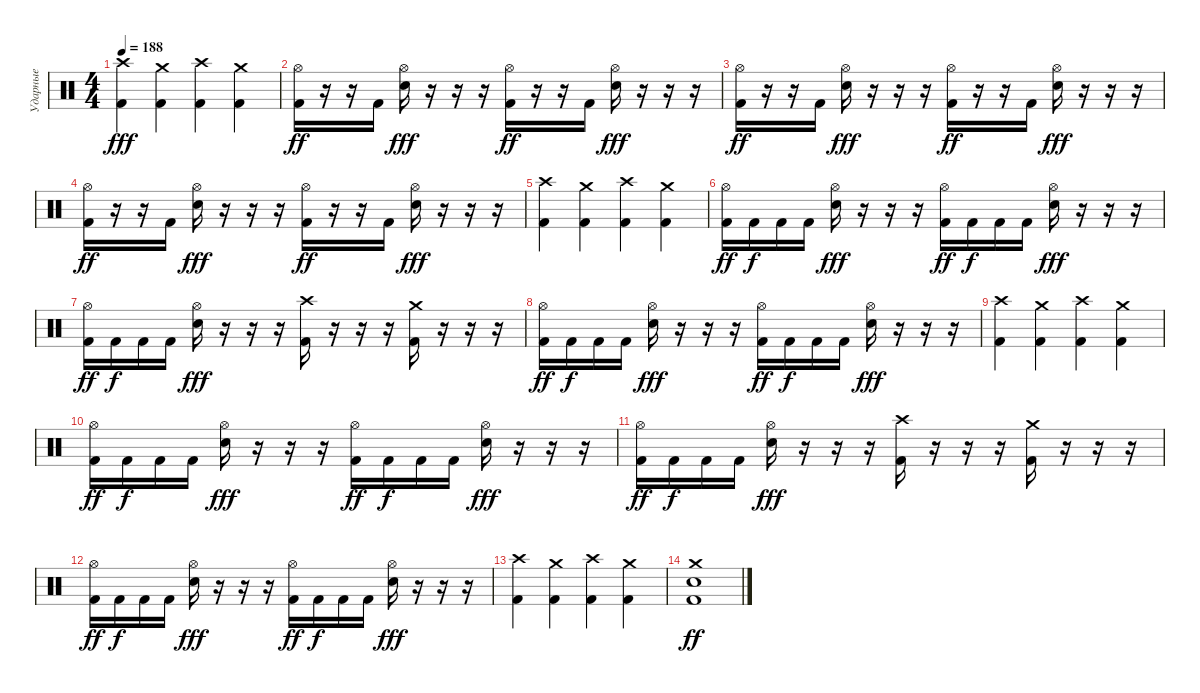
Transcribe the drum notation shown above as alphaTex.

\track ("Ударные" "Ударные") {instrument percussion}
\staff {score}
\articulation defaults
\ts (4 4)
\tempo 188
\clef neutral
\ks c
("Crash high (hit)" "Kick (hit) 2").4{dy fff} ("Crash medium (hit)" "Kick (hit) 2").4 ("Crash high (hit)" "Kick (hit) 2").4 ("Crash medium (hit)" "Kick (hit) 2").4 |
("Hi-Hat (open)" "Kick (hit) 2").16{dy ff} r.16 r.16 "Kick (hit) 2".16 ("Hi-Hat (open)" "Electric Snare (hit)").16{dy fff} r.16 r.16 r.16 ("Hi-Hat (open)" "Kick (hit) 2").16{dy ff} r.16 r.16 "Kick (hit) 2".16 ("Hi-Hat (open)" "Electric Snare (hit)").16{dy fff} r.16 r.16 r.16 |
("Hi-Hat (open)" "Kick (hit) 2").16{dy ff} r.16 r.16 "Kick (hit) 2".16 ("Hi-Hat (open)" "Electric Snare (hit)").16{dy fff} r.16 r.16 r.16 ("Hi-Hat (open)" "Kick (hit) 2").16{dy ff} r.16 r.16 "Kick (hit) 2".16 ("Hi-Hat (open)" "Electric Snare (hit)").16{dy fff} r.16 r.16 r.16 |
("Hi-Hat (open)" "Kick (hit) 2").16{dy ff} r.16 r.16 "Kick (hit) 2".16 ("Hi-Hat (open)" "Electric Snare (hit)").16{dy fff} r.16 r.16 r.16 ("Hi-Hat (open)" "Kick (hit) 2").16{dy ff} r.16 r.16 "Kick (hit) 2".16 ("Hi-Hat (open)" "Electric Snare (hit)").16{dy fff} r.16 r.16 r.16 |
("Crash high (hit)" "Kick (hit) 2").4 ("Crash medium (hit)" "Kick (hit) 2").4 ("Crash high (hit)" "Kick (hit) 2").4 ("Crash medium (hit)" "Kick (hit) 2").4 |
("Hi-Hat (open)" "Kick (hit) 2").16{dy ff} "Kick (hit) 2".16{dy f} "Kick (hit) 2".16 "Kick (hit) 2".16 ("Hi-Hat (open)" "Electric Snare (hit)").16{dy fff} r.16 r.16 r.16 ("Hi-Hat (open)" "Kick (hit) 2").16{dy ff} "Kick (hit) 2".16{dy f} "Kick (hit) 2".16 "Kick (hit) 2".16 ("Hi-Hat (open)" "Electric Snare (hit)").16{dy fff} r.16 r.16 r.16 |
("Hi-Hat (open)" "Kick (hit) 2").16{dy ff} "Kick (hit) 2".16{dy f} "Kick (hit) 2".16 "Kick (hit) 2".16 ("Hi-Hat (open)" "Electric Snare (hit)").16{dy fff} r.16 r.16 r.16 ("Crash high (hit)" "Kick (hit) 2").16 r.16 r.16 r.16 ("Crash medium (hit)" "Kick (hit) 2").16 r.16 r.16 r.16 |
("Hi-Hat (open)" "Kick (hit) 2").16{dy ff} "Kick (hit) 2".16{dy f} "Kick (hit) 2".16 "Kick (hit) 2".16 ("Hi-Hat (open)" "Electric Snare (hit)").16{dy fff} r.16 r.16 r.16 ("Hi-Hat (open)" "Kick (hit) 2").16{dy ff} "Kick (hit) 2".16{dy f} "Kick (hit) 2".16 "Kick (hit) 2".16 ("Hi-Hat (open)" "Electric Snare (hit)").16{dy fff} r.16 r.16 r.16 |
("Crash high (hit)" "Kick (hit) 2").4 ("Crash medium (hit)" "Kick (hit) 2").4 ("Crash high (hit)" "Kick (hit) 2").4 ("Crash medium (hit)" "Kick (hit) 2").4 |
("Hi-Hat (open)" "Kick (hit) 2").16{dy ff} "Kick (hit) 2".16{dy f} "Kick (hit) 2".16 "Kick (hit) 2".16 ("Hi-Hat (open)" "Electric Snare (hit)").16{dy fff} r.16 r.16 r.16 ("Hi-Hat (open)" "Kick (hit) 2").16{dy ff} "Kick (hit) 2".16{dy f} "Kick (hit) 2".16 "Kick (hit) 2".16 ("Hi-Hat (open)" "Electric Snare (hit)").16{dy fff} r.16 r.16 r.16 |
("Hi-Hat (open)" "Kick (hit) 2").16{dy ff} "Kick (hit) 2".16{dy f} "Kick (hit) 2".16 "Kick (hit) 2".16 ("Hi-Hat (open)" "Electric Snare (hit)").16{dy fff} r.16 r.16 r.16 ("Crash high (hit)" "Kick (hit) 2").16 r.16 r.16 r.16 ("Crash medium (hit)" "Kick (hit) 2").16 r.16 r.16 r.16 |
("Hi-Hat (open)" "Kick (hit) 2").16{dy ff} "Kick (hit) 2".16{dy f} "Kick (hit) 2".16 "Kick (hit) 2".16 ("Hi-Hat (open)" "Electric Snare (hit)").16{dy fff} r.16 r.16 r.16 ("Hi-Hat (open)" "Kick (hit) 2").16{dy ff} "Kick (hit) 2".16{dy f} "Kick (hit) 2".16 "Kick (hit) 2".16 ("Hi-Hat (open)" "Electric Snare (hit)").16{dy fff} r.16 r.16 r.16 |
("Crash high (hit)" "Kick (hit) 2").4 ("Crash medium (hit)" "Kick (hit) 2").4 ("Crash high (hit)" "Kick (hit) 2").4 ("Crash medium (hit)" "Kick (hit) 2").4 |
("Crash medium (hit)" "Electric Snare (hit)" "Kick (hit) 2").1{dy ff}
